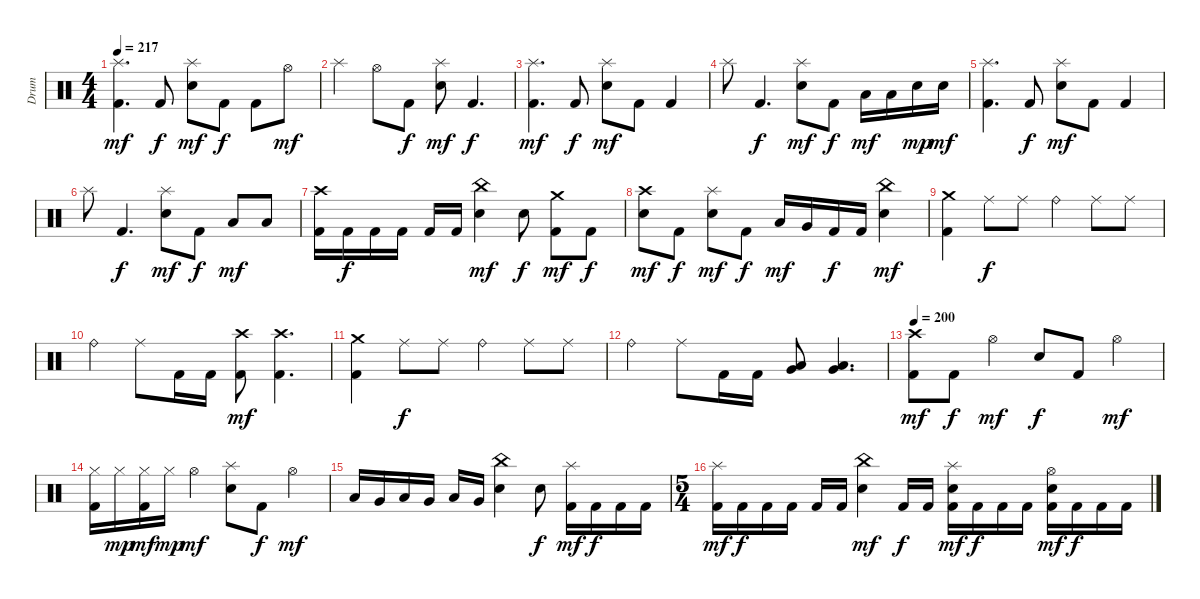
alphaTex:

\track ("Drum" "Drum") {instrument percussion}
\staff {score}
\articulation defaults
\ts (4 4)
\tempo 217
\clef neutral
\ks c
("Splash (hit)" "Kick (hit) 2").4{d dy mf} "Kick (hit) 2".8{dy f} ("Splash (hit)" "Electric Snare (hit)").8{dy mf} "Kick (hit) 2".8{dy f} "Kick (hit) 2".8 "Hi-Hat (open)".8{dy mf} |
"Splash (hit)".4 "Hi-Hat (open)".8 "Kick (hit) 2".8{dy f} ("Splash (hit)" "Electric Snare (hit)").8{dy mf} "Kick (hit) 2".4{d dy f} |
("Splash (hit)" "Kick (hit) 2").4{d dy mf} "Kick (hit) 2".8{dy f} ("Splash (hit)" "Electric Snare (hit)").8{dy mf} "Kick (hit) 2".8 "Kick (hit) 2".4 |
"Splash (hit)".8 "Kick (hit) 2".4{d dy f} ("Splash (hit)" "Electric Snare (hit)").8{dy mf} "Kick (hit) 2".8{dy f} "Low Tom (hit)".16{dy mf} "Low Tom (hit)".16 "Electric Snare (hit)".16{dy mp} "Electric Snare (hit)".16{dy mf} |
("Splash (hit)" "Kick (hit) 2").4{d} "Kick (hit) 2".8{dy f} ("Splash (hit)" "Electric Snare (hit)").8{dy mf} "Kick (hit) 2".8 "Kick (hit) 2".4 |
"Splash (hit)".8 "Kick (hit) 2".4{d dy f} ("Splash (hit)" "Electric Snare (hit)").8{dy mf} "Kick (hit) 2".8{dy f} "Low Tom (hit)".8{dy mf} "Low Tom (hit)".8 |
("Crash high (hit)" "Kick (hit) 2").16 "Kick (hit) 2".16{dy f} "Kick (hit) 2".16 "Kick (hit) 2".16 "Kick (hit) 2".16 "Kick (hit) 2".16 ("China (hit)" "Electric Snare (hit)").4{dy mf} "Electric Snare (hit)".8{dy f} ("Crash medium (hit)" "Kick (hit) 2").8{dy mf} "Kick (hit) 2".8{dy f} |
("Crash high (hit)" "Electric Snare (hit)").8{dy mf} "Kick (hit) 2".8{dy f} ("Splash (hit)" "Electric Snare (hit)").8{dy mf} "Kick (hit) 2".8{dy f} "Low Tom (hit)".16{dy mf} "Very Low Tom (hit)".16 "Kick (hit) 2".16{dy f} "Kick (hit) 2".16 ("China (hit)" "Electric Snare (hit)").4{dy mf} |
("Crash medium (hit)" "Kick (hit) 2").4 "Ride (middle)".8{dy f} "Ride (middle)".8 "Ride (bell)".4 "Ride (middle)".8 "Ride (middle)".8 |
"Ride (bell)".4 "Ride (middle)".8 "Kick (hit) 2".16 "Kick (hit) 2".16 ("Crash high (hit)" "Kick (hit) 2").8{dy mf} ("Crash high (hit)" "Kick (hit) 2").4{d} |
("Crash medium (hit)" "Kick (hit) 2").4 "Ride (middle)".8{dy f} "Ride (middle)".8 "Ride (bell)".4 "Ride (middle)".8 "Ride (middle)".8 |
"Ride (bell)".4 "Ride (middle)".8 "Kick (hit) 2".16 "Kick (hit) 2".16 ("Low Tom (hit)" "Very Low Tom (hit)").8{bd 120} ("Low Tom (hit)" "Very Low Tom (hit)").4{d bd 120} |
\tempo 200
("Crash high (hit)" "Kick (hit) 2").8{dy mf} "Kick (hit) 2".8{dy f} "Hi-Hat (open)".4{dy mf} "Electric Snare (hit)".8{dy f} "Kick (hit) 2".8 "Hi-Hat (open)".4{dy mf} |
("Hi-Hat (closed)" "Kick (hit) 2").16 "Hi-Hat (closed)".16{dy mp} ("Hi-Hat (closed)" "Kick (hit) 2").16{dy mf} "Hi-Hat (closed)".16{dy mp} "Hi-Hat (open)".4{dy mf} ("Splash (hit)" "Electric Snare (hit)").8 "Kick (hit) 2".8{dy f} "Hi-Hat (open)".4{dy mf} |
"Low Tom (hit)".16 "Very Low Tom (hit)".16 "Low Tom (hit)".16 "Very Low Tom (hit)".16 "Low Tom (hit)".16 "Very Low Tom (hit)".16 ("China (hit)" "Electric Snare (hit)").4 "Electric Snare (hit)".8{dy f} ("Splash (hit)" "Kick (hit) 2").16{dy mf} "Kick (hit) 2".16{dy f} "Kick (hit) 2".16 "Kick (hit) 2".16 |
\ts (5 4)
("Splash (hit)" "Kick (hit) 2").16{dy mf} "Kick (hit) 2".16{dy f} "Kick (hit) 2".16 "Kick (hit) 2".16 "Kick (hit) 2".16 "Kick (hit) 2".16 ("China (hit)" "Electric Snare (hit)").4{dy mf} "Kick (hit) 2".16{dy f} "Kick (hit) 2".16 ("Splash (hit)" "Electric Snare (hit)" "Kick (hit) 2").16{dy mf} "Kick (hit) 2".16{dy f} "Kick (hit) 2".16 "Kick (hit) 2".16 ("Hi-Hat (open)" "Electric Snare (hit)" "Kick (hit) 2").16{dy mf} "Kick (hit) 2".16{dy f} "Kick (hit) 2".16 "Kick (hit) 2".16
